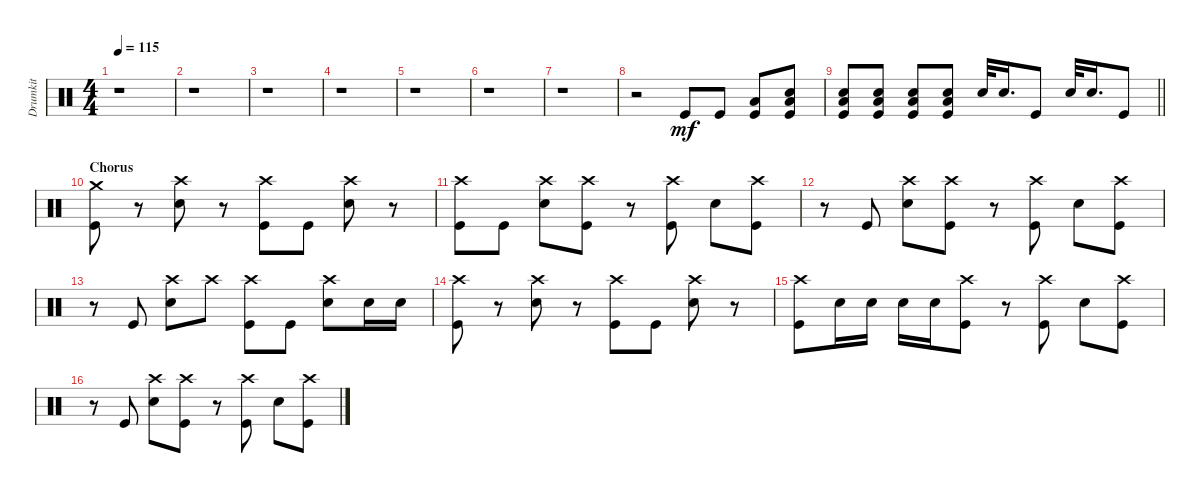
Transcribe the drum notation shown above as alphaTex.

\track ("Drumkit" "Drumkit") {instrument percussion}
\staff {score}
\articulation defaults
\ts (4 4)
\tempo 115
\clef neutral
\ks c
r.1{dy mf} |
r.1 |
r.1 |
r.1 |
r.1 |
r.1 |
r.1 |
r.2 "Kick (hit)".8 "Kick (hit)".8 ("Kick (hit)" "Low Floor Tom (hit)").8 ("Kick (hit)" "Snare (hit) 2" "Low Floor Tom (hit)").8 |
\barLineRight lightlight
("Kick (hit)" "Snare (hit) 2" "Low Floor Tom (hit)").8 ("Kick (hit)" "Snare (hit) 2" "Low Floor Tom (hit)").8 ("Kick (hit)" "Snare (hit) 2" "Low Floor Tom (hit)").8 ("Kick (hit)" "Snare (hit) 2" "Low Floor Tom (hit)").8 "Snare (hit) 2".32 "Snare (hit) 2".16{d} "Kick (hit)".8 "Snare (hit) 2".32 "Snare (hit) 2".16{d} "Kick (hit)".8 |
\section ("" "Chorus")
("Kick (hit)" "Crash medium (hit)").8 r.8 ("Snare (hit) 2" "Crash high (hit)").8 r.8 ("Kick (hit)" "Crash high (hit)").8 "Kick (hit)".8 ("Snare (hit) 2" "Crash high (hit)").8 r.8 |
("Kick (hit)" "Crash high (hit)").8 "Kick (hit)".8 ("Snare (hit) 2" "Crash high (hit)").8 ("Kick (hit)" "Crash high (hit)").8 r.8 ("Kick (hit)" "Crash high (hit)").8 "Snare (hit) 2".8 ("Kick (hit)" "Crash high (hit)").8 |
r.8 "Kick (hit)".8 ("Snare (hit) 2" "Crash high (hit)").8 ("Kick (hit)" "Crash high (hit)").8 r.8 ("Kick (hit)" "Crash high (hit)").8 "Snare (hit) 2".8 ("Kick (hit)" "Crash high (hit)").8 |
r.8 "Kick (hit)".8 ("Snare (hit) 2" "Crash high (hit)").8 "Crash high (hit)".8 ("Kick (hit)" "Crash high (hit)").8 "Kick (hit)".8 ("Snare (hit) 2" "Crash high (hit)").8 "Snare (hit) 2".16 "Snare (hit) 2".16 |
("Kick (hit)" "Crash high (hit)").8 r.8 ("Snare (hit) 2" "Crash high (hit)").8 r.8 ("Kick (hit)" "Crash high (hit)").8 "Kick (hit)".8 ("Snare (hit) 2" "Crash high (hit)").8 r.8 |
("Kick (hit)" "Crash high (hit)").8 "Snare (hit) 2".16 "Snare (hit) 2".16 "Snare (hit) 2".16 "Snare (hit) 2".16 ("Kick (hit)" "Crash high (hit)").8 r.8 ("Kick (hit)" "Crash high (hit)").8 "Snare (hit) 2".8 ("Kick (hit)" "Crash high (hit)").8 |
r.8 "Kick (hit)".8 ("Snare (hit) 2" "Crash high (hit)").8 ("Kick (hit)" "Crash high (hit)").8 r.8 ("Kick (hit)" "Crash high (hit)").8 "Snare (hit) 2".8 ("Kick (hit)" "Crash high (hit)").8
